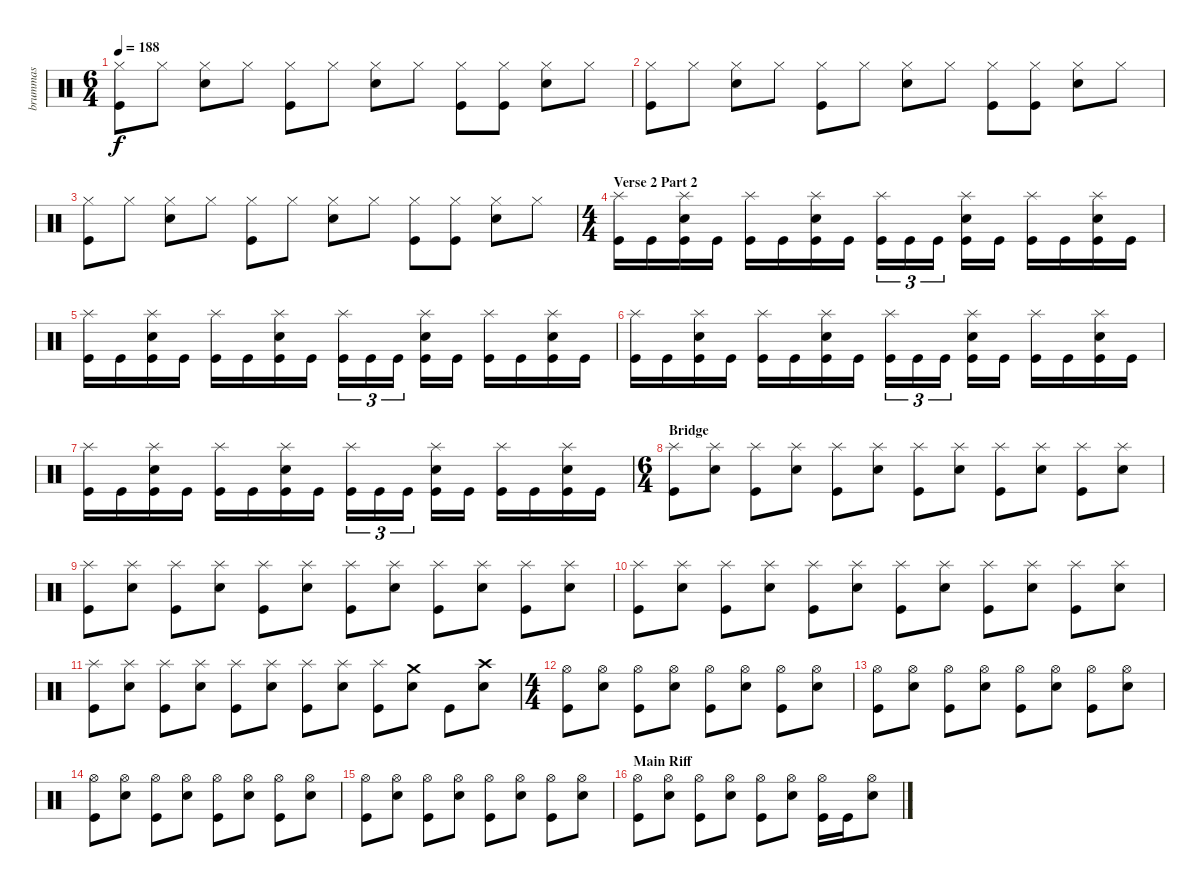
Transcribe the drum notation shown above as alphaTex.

\track ("brummas" "brummas") {instrument percussion}
\staff {score}
\articulation defaults
\ts (6 4)
\tempo 188
\clef neutral
\ks c
("Hi-Hat (closed)" "Kick (hit)").8{dy f} "Hi-Hat (closed)".8 ("Hi-Hat (closed)" "Snare (hit) 2").8 "Hi-Hat (closed)".8 ("Hi-Hat (closed)" "Kick (hit)").8 "Hi-Hat (closed)".8 ("Hi-Hat (closed)" "Snare (hit) 2").8 "Hi-Hat (closed)".8 ("Hi-Hat (closed)" "Kick (hit)").8 ("Hi-Hat (closed)" "Kick (hit)").8 ("Hi-Hat (closed)" "Snare (hit) 2").8 "Hi-Hat (closed)".8 |
("Hi-Hat (closed)" "Kick (hit)").8 "Hi-Hat (closed)".8 ("Hi-Hat (closed)" "Snare (hit) 2").8 "Hi-Hat (closed)".8 ("Hi-Hat (closed)" "Kick (hit)").8 "Hi-Hat (closed)".8 ("Hi-Hat (closed)" "Snare (hit) 2").8 "Hi-Hat (closed)".8 ("Hi-Hat (closed)" "Kick (hit)").8 ("Hi-Hat (closed)" "Kick (hit)").8 ("Hi-Hat (closed)" "Snare (hit) 2").8 "Hi-Hat (closed)".8 |
("Hi-Hat (closed)" "Kick (hit)").8 "Hi-Hat (closed)".8 ("Hi-Hat (closed)" "Snare (hit) 2").8 "Hi-Hat (closed)".8 ("Hi-Hat (closed)" "Kick (hit)").8 "Hi-Hat (closed)".8 ("Hi-Hat (closed)" "Snare (hit) 2").8 "Hi-Hat (closed)".8 ("Hi-Hat (closed)" "Kick (hit)").8 ("Hi-Hat (closed)" "Kick (hit)").8 ("Hi-Hat (closed)" "Snare (hit) 2").8 "Hi-Hat (closed)".8 |
\ts (4 4)
\section ("" "Verse 2 Part 2")
("Splash (hit)" "Kick (hit)").16 "Kick (hit)".16 ("Splash (hit)" "Snare (hit) 2" "Kick (hit)").16 "Kick (hit)".16 ("Splash (hit)" "Kick (hit)").16 "Kick (hit)".16 ("Splash (hit)" "Snare (hit) 2" "Kick (hit)").16 "Kick (hit)".16 ("Splash (hit)" "Kick (hit)").16{tu (3 2)} "Kick (hit)".16{tu (3 2)} "Kick (hit)".16{tu (3 2)} ("Splash (hit)" "Snare (hit) 2" "Kick (hit)").16 "Kick (hit)".16 ("Splash (hit)" "Kick (hit)").16 "Kick (hit)".16 ("Splash (hit)" "Snare (hit) 2" "Kick (hit)").16 "Kick (hit)".16 |
("Splash (hit)" "Kick (hit)").16 "Kick (hit)".16 ("Splash (hit)" "Snare (hit) 2" "Kick (hit)").16 "Kick (hit)".16 ("Splash (hit)" "Kick (hit)").16 "Kick (hit)".16 ("Splash (hit)" "Snare (hit) 2" "Kick (hit)").16 "Kick (hit)".16 ("Splash (hit)" "Kick (hit)").16{tu (3 2)} "Kick (hit)".16{tu (3 2)} "Kick (hit)".16{tu (3 2)} ("Splash (hit)" "Snare (hit) 2" "Kick (hit)").16 "Kick (hit)".16 ("Splash (hit)" "Kick (hit)").16 "Kick (hit)".16 ("Splash (hit)" "Snare (hit) 2" "Kick (hit)").16 "Kick (hit)".16 |
("Splash (hit)" "Kick (hit)").16 "Kick (hit)".16 ("Splash (hit)" "Snare (hit) 2" "Kick (hit)").16 "Kick (hit)".16 ("Splash (hit)" "Kick (hit)").16 "Kick (hit)".16 ("Splash (hit)" "Snare (hit) 2" "Kick (hit)").16 "Kick (hit)".16 ("Splash (hit)" "Kick (hit)").16{tu (3 2)} "Kick (hit)".16{tu (3 2)} "Kick (hit)".16{tu (3 2)} ("Splash (hit)" "Snare (hit) 2" "Kick (hit)").16 "Kick (hit)".16 ("Splash (hit)" "Kick (hit)").16 "Kick (hit)".16 ("Splash (hit)" "Snare (hit) 2" "Kick (hit)").16 "Kick (hit)".16 |
("Splash (hit)" "Kick (hit)").16 "Kick (hit)".16 ("Splash (hit)" "Snare (hit) 2" "Kick (hit)").16 "Kick (hit)".16 ("Splash (hit)" "Kick (hit)").16 "Kick (hit)".16 ("Splash (hit)" "Snare (hit) 2" "Kick (hit)").16 "Kick (hit)".16 ("Splash (hit)" "Kick (hit)").16{tu (3 2)} "Kick (hit)".16{tu (3 2)} "Kick (hit)".16{tu (3 2)} ("Splash (hit)" "Snare (hit) 2" "Kick (hit)").16 "Kick (hit)".16 ("Splash (hit)" "Kick (hit)").16 "Kick (hit)".16 ("Splash (hit)" "Snare (hit) 2" "Kick (hit)").16 "Kick (hit)".16 |
\ts (6 4)
\section ("" "Bridge")
("Splash (hit)" "Kick (hit)").8 ("Splash (hit)" "Snare (hit) 2").8 ("Splash (hit)" "Kick (hit)").8 ("Splash (hit)" "Snare (hit) 2").8 ("Splash (hit)" "Kick (hit)").8 ("Splash (hit)" "Snare (hit) 2").8 ("Splash (hit)" "Kick (hit)").8 ("Splash (hit)" "Snare (hit) 2").8 ("Splash (hit)" "Kick (hit)").8 ("Splash (hit)" "Snare (hit) 2").8 ("Splash (hit)" "Kick (hit)").8 ("Splash (hit)" "Snare (hit) 2").8 |
("Splash (hit)" "Kick (hit)").8 ("Splash (hit)" "Snare (hit) 2").8 ("Splash (hit)" "Kick (hit)").8 ("Splash (hit)" "Snare (hit) 2").8 ("Splash (hit)" "Kick (hit)").8 ("Splash (hit)" "Snare (hit) 2").8 ("Splash (hit)" "Kick (hit)").8 ("Splash (hit)" "Snare (hit) 2").8 ("Splash (hit)" "Kick (hit)").8 ("Splash (hit)" "Snare (hit) 2").8 ("Splash (hit)" "Kick (hit)").8 ("Splash (hit)" "Snare (hit) 2").8 |
("Splash (hit)" "Kick (hit)").8 ("Splash (hit)" "Snare (hit) 2").8 ("Splash (hit)" "Kick (hit)").8 ("Splash (hit)" "Snare (hit) 2").8 ("Splash (hit)" "Kick (hit)").8 ("Splash (hit)" "Snare (hit) 2").8 ("Splash (hit)" "Kick (hit)").8 ("Splash (hit)" "Snare (hit) 2").8 ("Splash (hit)" "Kick (hit)").8 ("Splash (hit)" "Snare (hit) 2").8 ("Splash (hit)" "Kick (hit)").8 ("Splash (hit)" "Snare (hit) 2").8 |
("Splash (hit)" "Kick (hit)").8 ("Splash (hit)" "Snare (hit) 2").8 ("Splash (hit)" "Kick (hit)").8 ("Splash (hit)" "Snare (hit) 2").8 ("Splash (hit)" "Kick (hit)").8 ("Splash (hit)" "Snare (hit) 2").8 ("Splash (hit)" "Kick (hit)").8 ("Splash (hit)" "Snare (hit) 2").8 ("Splash (hit)" "Kick (hit)").8 ("Crash medium (hit)" "Snare (hit) 2").8 "Kick (hit)".8 ("Crash high (hit)" "Snare (hit) 2").8 |
\ts (4 4)
("Hi-Hat (open)" "Kick (hit)").8 ("Hi-Hat (open)" "Snare (hit) 2").8 ("Hi-Hat (open)" "Kick (hit)").8 ("Hi-Hat (open)" "Snare (hit) 2").8 ("Hi-Hat (open)" "Kick (hit)").8 ("Hi-Hat (open)" "Snare (hit) 2").8 ("Hi-Hat (open)" "Kick (hit)").8 ("Hi-Hat (open)" "Snare (hit) 2").8 |
("Hi-Hat (open)" "Kick (hit)").8 ("Hi-Hat (open)" "Snare (hit) 2").8 ("Hi-Hat (open)" "Kick (hit)").8 ("Hi-Hat (open)" "Snare (hit) 2").8 ("Hi-Hat (open)" "Kick (hit)").8 ("Hi-Hat (open)" "Snare (hit) 2").8 ("Hi-Hat (open)" "Kick (hit)").8 ("Hi-Hat (open)" "Snare (hit) 2").8 |
("Hi-Hat (open)" "Kick (hit)").8 ("Hi-Hat (open)" "Snare (hit) 2").8 ("Hi-Hat (open)" "Kick (hit)").8 ("Hi-Hat (open)" "Snare (hit) 2").8 ("Hi-Hat (open)" "Kick (hit)").8 ("Hi-Hat (open)" "Snare (hit) 2").8 ("Hi-Hat (open)" "Kick (hit)").8 ("Hi-Hat (open)" "Snare (hit) 2").8 |
("Hi-Hat (open)" "Kick (hit)").8 ("Hi-Hat (open)" "Snare (hit) 2").8 ("Hi-Hat (open)" "Kick (hit)").8 ("Hi-Hat (open)" "Snare (hit) 2").8 ("Hi-Hat (open)" "Kick (hit)").8 ("Hi-Hat (open)" "Snare (hit) 2").8 ("Hi-Hat (open)" "Kick (hit)").8 ("Hi-Hat (open)" "Snare (hit) 2").8 |
\section ("" "Main Riff")
("Hi-Hat (open)" "Kick (hit)").8 ("Hi-Hat (open)" "Snare (hit) 2").8 ("Hi-Hat (open)" "Kick (hit)").8 ("Hi-Hat (open)" "Snare (hit) 2").8 ("Hi-Hat (open)" "Kick (hit)").8 ("Hi-Hat (open)" "Snare (hit) 2").8 ("Hi-Hat (open)" "Kick (hit)").16 "Kick (hit)".16 ("Hi-Hat (open)" "Snare (hit) 2").8
